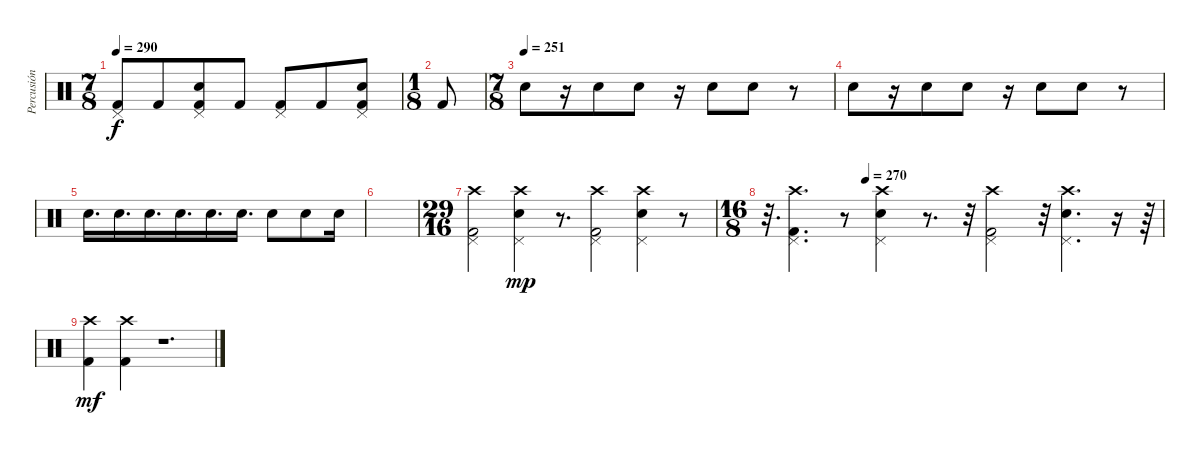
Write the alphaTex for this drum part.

\track ("Percusión" "Percusión") {instrument percussion}
\staff {score}
\articulation defaults
\ts (7 8)
\tempo 290
\clef neutral
\ks c
("Pedal Hi-Hat (hit)" "Kick (hit) 2").8{dy f} "Kick (hit) 2".8 ("Pedal Hi-Hat (hit)" "Snare (hit) 2" "Kick (hit) 2").8 "Kick (hit) 2".8 ("Pedal Hi-Hat (hit)" "Kick (hit) 2").8 "Kick (hit) 2".8 ("Pedal Hi-Hat (hit)" "Snare (hit) 2" "Kick (hit) 2").8 |
\ts (1 8)
"Kick (hit) 2".8 |
\ts (7 8)
\tempo (251)
"Snare (hit) 2".8 r.16 "Snare (hit) 2".8 "Snare (hit) 2".8 r.16 "Snare (hit) 2".8 "Snare (hit) 2".8 r.8 |
"Snare (hit) 2".8 r.16 "Snare (hit) 2".8 "Snare (hit) 2".8 r.16 "Snare (hit) 2".8 "Snare (hit) 2".8 r.8 |
"Snare (hit) 2".16{d} "Snare (hit) 2".16{d} "Snare (hit) 2".16{d} "Snare (hit) 2".16{d} "Snare (hit) 2".16{d} "Snare (hit) 2".16{d} "Snare (hit) 2".8 "Snare (hit) 2".8 "Snare (hit) 2".16 |
|
\ts (29 16)
("Crash high (hit)" "Pedal Hi-Hat (hit)" "Kick (hit) 2").2 ("Crash high (hit)" "Pedal Hi-Hat (hit)" "Snare (hit) 2").4{dy mp} r.8{d} ("Crash high (hit)" "Pedal Hi-Hat (hit)" "Kick (hit) 2").2 ("Crash high (hit)" "Pedal Hi-Hat (hit)" "Snare (hit) 2").4 r.8 |
\ts (16 8)
\tempo (270 0.25)
r.32{d} ("Crash high (hit)" "Pedal Hi-Hat (hit)" "Kick (hit) 2").4{d} r.8 ("Crash high (hit)" "Pedal Hi-Hat (hit)" "Snare (hit) 2").4 r.8{d} r.32 ("Crash high (hit)" "Pedal Hi-Hat (hit)" "Kick (hit) 2").2 r.32 ("Crash high (hit)" "Pedal Hi-Hat (hit)" "Snare (hit) 2").4{d} r.16 r.64 |
("Crash high (hit)" "Kick (hit) 2").4{dy mf} ("Crash high (hit)" "Kick (hit) 2").4 r.1{d}
